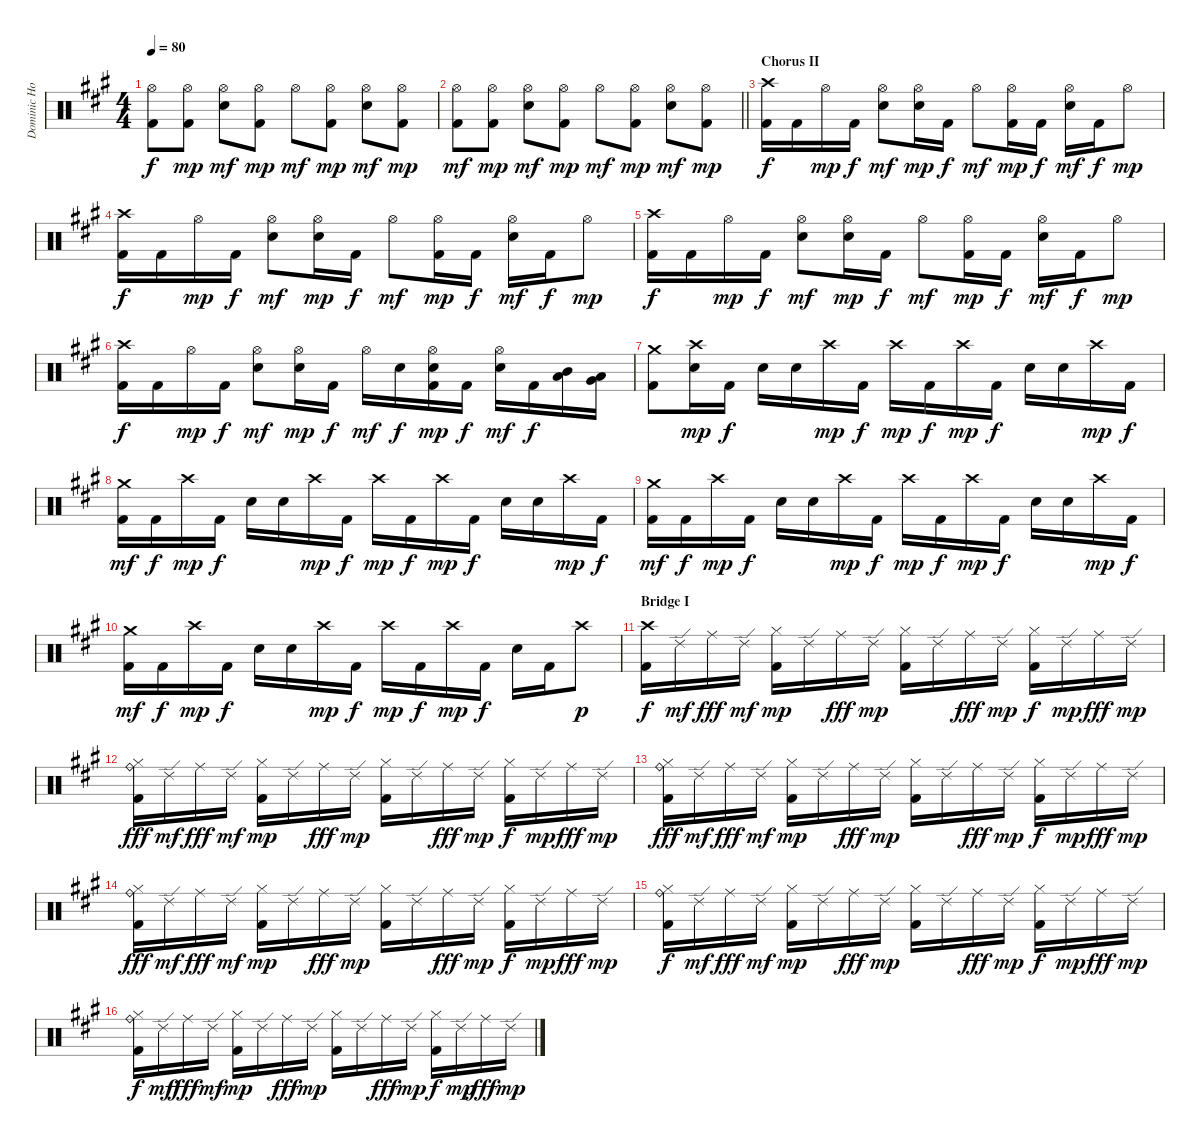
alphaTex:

\track ("Dominic Howard Drums" "Dominic Ho") {instrument percussion}
\staff {score}
\articulation defaults
\ts (4 4)
\tempo 80
\clef neutral
\ks a
("Hi-Hat (open)" "Kick (hit) 2").8{dy f} ("Hi-Hat (open)" "Kick (hit) 2").8{dy mp} ("Hi-Hat (open)" "Electric Snare (hit)").8{dy mf} ("Hi-Hat (open)" "Kick (hit) 2").8{dy mp} "Hi-Hat (open)".8{dy mf} ("Hi-Hat (open)" "Kick (hit) 2").8{dy mp} ("Hi-Hat (open)" "Electric Snare (hit)").8{dy mf} ("Hi-Hat (open)" "Kick (hit) 2").8{dy mp} |
\barLineRight lightlight
("Hi-Hat (open)" "Kick (hit) 2").8{dy mf} ("Hi-Hat (open)" "Kick (hit) 2").8{dy mp} ("Hi-Hat (open)" "Electric Snare (hit)").8{dy mf} ("Hi-Hat (open)" "Kick (hit) 2").8{dy mp} "Hi-Hat (open)".8{dy mf} ("Hi-Hat (open)" "Kick (hit) 2").8{dy mp} ("Hi-Hat (open)" "Electric Snare (hit)").8{dy mf} ("Hi-Hat (open)" "Kick (hit) 2").8{dy mp} |
\section ("" "Chorus II")
("Crash high (hit)" "Kick (hit) 2").16{dy f} "Kick (hit) 2".16 "Hi-Hat (open)".16{dy mp} "Kick (hit) 2".16{dy f} ("Hi-Hat (open)" "Electric Snare (hit)").8{dy mf} ("Hi-Hat (open)" "Electric Snare (hit)").16{dy mp} "Kick (hit) 2".16{dy f} "Hi-Hat (open)".8{dy mf} ("Hi-Hat (open)" "Kick (hit) 2").16{dy mp} "Kick (hit) 2".16{dy f} ("Hi-Hat (open)" "Electric Snare (hit)").16{dy mf} "Kick (hit) 2".16{dy f} "Hi-Hat (open)".8{dy mp} |
("Crash high (hit)" "Kick (hit) 2").16{dy f} "Kick (hit) 2".16 "Hi-Hat (open)".16{dy mp} "Kick (hit) 2".16{dy f} ("Hi-Hat (open)" "Electric Snare (hit)").8{dy mf} ("Hi-Hat (open)" "Electric Snare (hit)").16{dy mp} "Kick (hit) 2".16{dy f} "Hi-Hat (open)".8{dy mf} ("Hi-Hat (open)" "Kick (hit) 2").16{dy mp} "Kick (hit) 2".16{dy f} ("Hi-Hat (open)" "Electric Snare (hit)").16{dy mf} "Kick (hit) 2".16{dy f} "Hi-Hat (open)".8{dy mp} |
("Crash high (hit)" "Kick (hit) 2").16{dy f} "Kick (hit) 2".16 "Hi-Hat (open)".16{dy mp} "Kick (hit) 2".16{dy f} ("Hi-Hat (open)" "Electric Snare (hit)").8{dy mf} ("Hi-Hat (open)" "Electric Snare (hit)").16{dy mp} "Kick (hit) 2".16{dy f} "Hi-Hat (open)".8{dy mf} ("Hi-Hat (open)" "Kick (hit) 2").16{dy mp} "Kick (hit) 2".16{dy f} ("Hi-Hat (open)" "Electric Snare (hit)").16{dy mf} "Kick (hit) 2".16{dy f} "Hi-Hat (open)".8{dy mp} |
("Crash high (hit)" "Kick (hit) 2").16{dy f} "Kick (hit) 2".16 "Hi-Hat (open)".16{dy mp} "Kick (hit) 2".16{dy f} ("Hi-Hat (open)" "Electric Snare (hit)").8{dy mf} ("Hi-Hat (open)" "Electric Snare (hit)").16{dy mp} "Kick (hit) 2".16{dy f} "Hi-Hat (open)".16{dy mf} "Electric Snare (hit)".16{dy f} ("Hi-Hat (open)" "Electric Snare (hit)" "Kick (hit) 2").16{dy mp} "Kick (hit) 2".16{dy f} ("Hi-Hat (open)" "Electric Snare (hit)").16{dy mf} "Kick (hit) 2".16{dy f} ("Mid Tom (hit)" "Low Tom (hit)").16{bd 60} ("Low Tom (hit)" "Very Low Tom (hit)").16{bd 60} |
("Crash medium (hit)" "Kick (hit) 2").8 ("Crash high (hit)" "Electric Snare (hit)").16{dy mp} "Kick (hit) 2".16{dy f} "Electric Snare (hit)".16 "Electric Snare (hit)".16 "Crash high (hit)".16{dy mp} "Kick (hit) 2".16{dy f} "Crash high (hit)".16{dy mp} "Kick (hit) 2".16{dy f} "Crash high (hit)".16{dy mp} "Kick (hit) 2".16{dy f} "Electric Snare (hit)".16 "Electric Snare (hit)".16 "Crash high (hit)".16{dy mp} "Kick (hit) 2".16{dy f} |
("Crash medium (hit)" "Kick (hit) 2").16{dy mf} "Kick (hit) 2".16{dy f} "Crash high (hit)".16{dy mp} "Kick (hit) 2".16{dy f} "Electric Snare (hit)".16 "Electric Snare (hit)".16 "Crash high (hit)".16{dy mp} "Kick (hit) 2".16{dy f} "Crash high (hit)".16{dy mp} "Kick (hit) 2".16{dy f} "Crash high (hit)".16{dy mp} "Kick (hit) 2".16{dy f} "Electric Snare (hit)".16 "Electric Snare (hit)".16 "Crash high (hit)".16{dy mp} "Kick (hit) 2".16{dy f} |
("Crash medium (hit)" "Kick (hit) 2").16{dy mf} "Kick (hit) 2".16{dy f} "Crash high (hit)".16{dy mp} "Kick (hit) 2".16{dy f} "Electric Snare (hit)".16 "Electric Snare (hit)".16 "Crash high (hit)".16{dy mp} "Kick (hit) 2".16{dy f} "Crash high (hit)".16{dy mp} "Kick (hit) 2".16{dy f} "Crash high (hit)".16{dy mp} "Kick (hit) 2".16{dy f} "Electric Snare (hit)".16 "Electric Snare (hit)".16 "Crash high (hit)".16{dy mp} "Kick (hit) 2".16{dy f} |
("Crash medium (hit)" "Kick (hit) 2").16{dy mf} "Kick (hit) 2".16{dy f} "Crash high (hit)".16{dy mp} "Kick (hit) 2".16{dy f} "Electric Snare (hit)".16 "Electric Snare (hit)".16 "Crash high (hit)".16{dy mp} "Kick (hit) 2".16{dy f} "Crash high (hit)".16{dy mp} "Kick (hit) 2".16{dy f} "Crash high (hit)".16{dy mp} "Kick (hit) 2".16{dy f} "Electric Snare (hit)".16 "Kick (hit) 2".16 "Crash high (hit)".8{dy p} |
\section ("" "Bridge I")
("Crash high (hit)" "Kick (hit) 2").16{dy f} "Ride (edge) 2".16{dy mf} "Ride (middle)".16{dy fff} "Ride (edge) 2".16{dy mf} ("Hi-Hat (closed)" "Kick (hit) 2").16{dy mp} "Ride (edge) 2".16 "Ride (middle)".16{dy fff} "Ride (edge) 2".16{dy mp} ("Hi-Hat (closed)" "Kick (hit) 2").16 "Ride (edge) 2".16 "Ride (middle)".16{dy fff} "Ride (edge) 2".16{dy mp} ("Hi-Hat (closed)" "Kick (hit) 2").16{dy f} "Ride (edge) 2".16{dy mp} "Ride (middle)".16{dy fff} "Ride (edge) 2".16{dy mp} |
("Ride (bell)" "Hi-Hat (closed)" "Kick (hit) 2").16{dy fff} "Ride (edge) 2".16{dy mf} "Ride (middle)".16{dy fff} "Ride (edge) 2".16{dy mf} ("Hi-Hat (closed)" "Kick (hit) 2").16{dy mp} "Ride (edge) 2".16 "Ride (middle)".16{dy fff} "Ride (edge) 2".16{dy mp} ("Hi-Hat (closed)" "Kick (hit) 2").16 "Ride (edge) 2".16 "Ride (middle)".16{dy fff} "Ride (edge) 2".16{dy mp} ("Hi-Hat (closed)" "Kick (hit) 2").16{dy f} "Ride (edge) 2".16{dy mp} "Ride (middle)".16{dy fff} "Ride (edge) 2".16{dy mp} |
("Ride (bell)" "Hi-Hat (closed)" "Kick (hit) 2").16{dy fff} "Ride (edge) 2".16{dy mf} "Ride (middle)".16{dy fff} "Ride (edge) 2".16{dy mf} ("Hi-Hat (closed)" "Kick (hit) 2").16{dy mp} "Ride (edge) 2".16 "Ride (middle)".16{dy fff} "Ride (edge) 2".16{dy mp} ("Hi-Hat (closed)" "Kick (hit) 2").16 "Ride (edge) 2".16 "Ride (middle)".16{dy fff} "Ride (edge) 2".16{dy mp} ("Hi-Hat (closed)" "Kick (hit) 2").16{dy f} "Ride (edge) 2".16{dy mp} "Ride (middle)".16{dy fff} "Ride (edge) 2".16{dy mp} |
("Ride (bell)" "Hi-Hat (closed)" "Kick (hit) 2").16{dy fff} "Ride (edge) 2".16{dy mf} "Ride (middle)".16{dy fff} "Ride (edge) 2".16{dy mf} ("Hi-Hat (closed)" "Kick (hit) 2").16{dy mp} "Ride (edge) 2".16 "Ride (middle)".16{dy fff} "Ride (edge) 2".16{dy mp} ("Hi-Hat (closed)" "Kick (hit) 2").16 "Ride (edge) 2".16 "Ride (middle)".16{dy fff} "Ride (edge) 2".16{dy mp} ("Hi-Hat (closed)" "Kick (hit) 2").16{dy f} "Ride (edge) 2".16{dy mp} "Ride (middle)".16{dy fff} "Ride (edge) 2".16{dy mp} |
("Ride (bell)" "Hi-Hat (closed)" "Kick (hit) 2").16{dy f} "Ride (edge) 2".16{dy mf} "Ride (middle)".16{dy fff} "Ride (edge) 2".16{dy mf} ("Hi-Hat (closed)" "Kick (hit) 2").16{dy mp} "Ride (edge) 2".16 "Ride (middle)".16{dy fff} "Ride (edge) 2".16{dy mp} ("Hi-Hat (closed)" "Kick (hit) 2").16 "Ride (edge) 2".16 "Ride (middle)".16{dy fff} "Ride (edge) 2".16{dy mp} ("Hi-Hat (closed)" "Kick (hit) 2").16{dy f} "Ride (edge) 2".16{dy mp} "Ride (middle)".16{dy fff} "Ride (edge) 2".16{dy mp} |
("Ride (bell)" "Hi-Hat (closed)" "Kick (hit) 2").16{dy f} "Ride (edge) 2".16{dy mf} "Ride (middle)".16{dy fff} "Ride (edge) 2".16{dy mf} ("Hi-Hat (closed)" "Kick (hit) 2").16{dy mp} "Ride (edge) 2".16 "Ride (middle)".16{dy fff} "Ride (edge) 2".16{dy mp} ("Hi-Hat (closed)" "Kick (hit) 2").16 "Ride (edge) 2".16 "Ride (middle)".16{dy fff} "Ride (edge) 2".16{dy mp} ("Hi-Hat (closed)" "Kick (hit) 2").16{dy f} "Ride (edge) 2".16{dy mp} "Ride (middle)".16{dy fff} "Ride (edge) 2".16{dy mp}
